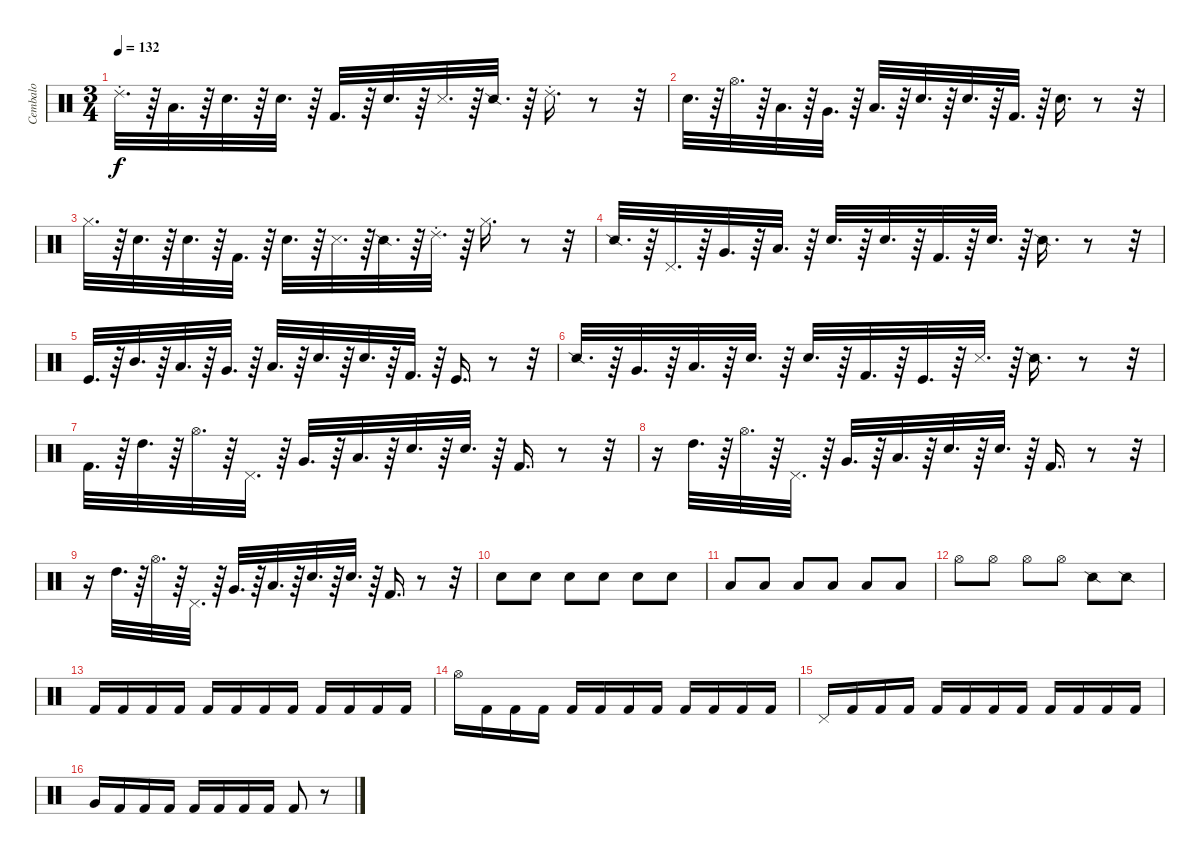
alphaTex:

\track ("Cembalo" "Cembalo") {instrument percussion}
\staff {score}
\articulation defaults
\ts (3 4)
\tempo 132
\clef neutral
\ks c "Ride (choke) 2".32{d dy f}
r.64 "Low Floor Tom (hit)".32{d} r.64 "Electric Snare (hit)".32{d} r.64 "Snare (hit) 2".32{d} r.64 "Kick (hit) 2".32{d} r.64 "Metronome (bell)".32{d} r.64 "Metronome (hit)".32{d} r.64 "Snare (side stick) 2".32{d} r.64 "Ride (choke) 2".16{d} r.8 r.32 |
"Metronome (bell)".32{d} r.64 "Hi-Hat (open)".32{d} r.64 "Low Tom (hit)".32{d} r.64 "Very Low Tom (hit)".32{d} r.64 "Low Floor Tom (hit)".32{d} r.64 "Hand Clap (hit)".32{d} r.64 "Snare (hit) 2".32{d} r.64 "Kick (hit) 2".32{d} r.64 "Metronome (bell)".16{d} r.8 r.32 |
"Hi-Hat (closed)".32{d} r.64 "Hand Clap (hit)".32{d} r.64 "Snare (hit) 2".32{d} r.64 "Kick (hit) 2".32{d} r.64 "Metronome (bell)".32{d} r.64 "Metronome (hit)".32{d} r.64 "Snare (side stick) 2".32{d} r.64 "Ride (choke) 2".32{d} r.64 "Hi-Hat (closed)".16{d} r.8 r.32 |
"Snare (side stick) 2".32{d} r.64 "Pedal Hi-Hat (hit)".32{d} r.64 "Very Low Tom (hit)".32{d} r.64 "Low Floor Tom (hit)".32{d} r.64 "Hand Clap (hit)".32{d} r.64 "Snare (hit) 2".32{d} r.64 "Kick (hit) 2".32{d} r.64 "Metronome (bell)".32{d} r.64 "Snare (side stick) 2".16{d} r.8 r.32 |
"Kick (hit)".32{d} r.64 "Mid Tom (hit)".32{d} r.64 "Low Tom (hit)".32{d} r.64 "Very Low Tom (hit)".32{d} r.64 "Low Floor Tom (hit)".32{d} r.64 "Hand Clap (hit)".32{d} r.64 "Snare (hit) 2".32{d} r.64 "Kick (hit) 2".32{d} r.64 "Kick (hit)".16{d} r.8 r.32 |
"Snare (side stick) 2".32{d} r.64 "Very Low Tom (hit)".32{d} r.64 "Low Floor Tom (hit)".32{d} r.64 "Hand Clap (hit)".32{d} r.64 "Snare (hit) 2".32{d} r.64 "Kick (hit) 2".32{d} r.64 "Kick (hit)".32{d} r.64 "Metronome (hit)".32{d} r.64 "Snare (side stick) 2".16{d} r.8 r.32 |
"Kick (hit) 2".32{d} r.64 "High Tom (hit)".32{d} r.64 "Hi-Hat (open)".32{d} r.64 "Pedal Hi-Hat (hit)".32{d} r.64 "Very Low Tom (hit)".32{d} r.64 "Low Floor Tom (hit)".32{d} r.64 "Hand Clap (hit)".32{d} r.64 "Snare (hit) 2".32{d} r.64 "Kick (hit) 2".16{d} r.8 r.32 |
r.16 "High Tom (hit)".32{d} r.64 "Hi-Hat (open)".32{d} r.64 "Pedal Hi-Hat (hit)".32{d} r.64 "Very Low Tom (hit)".32{d} r.64 "Low Floor Tom (hit)".32{d} r.64 "Hand Clap (hit)".32{d} r.64 "Snare (hit) 2".32{d} r.64 "Kick (hit) 2".16{d} r.8 r.32 |
r.16 "High Tom (hit)".32{d} r.64 "Hi-Hat (open)".32{d} r.64 "Pedal Hi-Hat (hit)".32{d} r.64 "Very Low Tom (hit)".32{d} r.64 "Low Floor Tom (hit)".32{d} r.64 "Hand Clap (hit)".32{d} r.64 "Snare (hit) 2".32{d} r.64 "Kick (hit) 2".16{d} r.8 r.32 |
"Hand Clap (hit)".8 "Hand Clap (hit)".8 "Hand Clap (hit)".8 "Hand Clap (hit)".8 "Hand Clap (hit)".8 "Hand Clap (hit)".8 |
"Low Floor Tom (hit)".8 "Low Floor Tom (hit)".8 "Low Floor Tom (hit)".8 "Low Floor Tom (hit)".8 "Low Floor Tom (hit)".8 "Low Floor Tom (hit)".8 |
"Hi-Hat (open)".8 "Hi-Hat (open)".8 "Hi-Hat (open)".8 "Hi-Hat (open)".8 "Snare (side stick) 2".8 "Snare (side stick) 2".8 |
"Kick (hit) 2".16 "Kick (hit) 2".16 "Kick (hit) 2".16 "Kick (hit) 2".16 "Kick (hit) 2".16 "Kick (hit) 2".16 "Kick (hit) 2".16 "Kick (hit) 2".16 "Kick (hit) 2".16 "Kick (hit) 2".16 "Kick (hit) 2".16 "Kick (hit) 2".16 |
"Hi-Hat (open)".16 "Kick (hit) 2".16 "Kick (hit) 2".16 "Kick (hit) 2".16 "Kick (hit) 2".16 "Kick (hit) 2".16 "Kick (hit) 2".16 "Kick (hit) 2".16 "Kick (hit) 2".16 "Kick (hit) 2".16 "Kick (hit) 2".16 "Kick (hit) 2".16 |
"Pedal Hi-Hat (hit)".16 "Kick (hit) 2".16 "Kick (hit) 2".16 "Kick (hit) 2".16 "Kick (hit) 2".16 "Kick (hit) 2".16 "Kick (hit) 2".16 "Kick (hit) 2".16 "Kick (hit) 2".16 "Kick (hit) 2".16 "Kick (hit) 2".16 "Kick (hit) 2".16 |
"Very Low Tom (hit)".16 "Kick (hit) 2".16 "Kick (hit) 2".16 "Kick (hit) 2".16 "Kick (hit) 2".16 "Kick (hit) 2".16 "Kick (hit) 2".16 "Kick (hit) 2".16 "Kick (hit) 2".8 r.8
